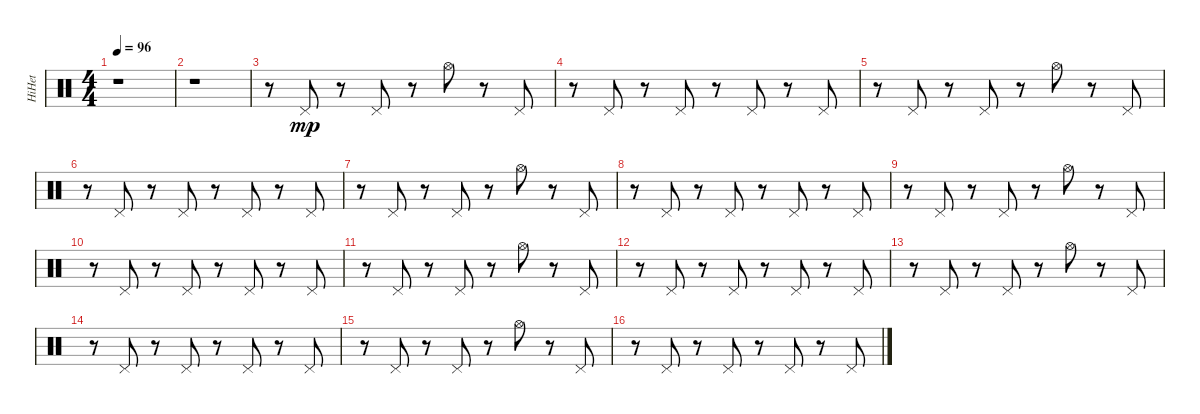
\track ("HiHet" "HiHet") {instrument percussion}
\staff {score}
\articulation defaults
\ts (4 4)
\tempo 96
\clef neutral
\ks c
r.1{dy mp} |
r.1 |
r.8 "Pedal Hi-Hat (hit)".8 r.8 "Pedal Hi-Hat (hit)".8 r.8 "Hi-Hat (open)".8 r.8 "Pedal Hi-Hat (hit)".8 |
r.8 "Pedal Hi-Hat (hit)".8 r.8 "Pedal Hi-Hat (hit)".8 r.8 "Pedal Hi-Hat (hit)".8 r.8 "Pedal Hi-Hat (hit)".8 |
r.8 "Pedal Hi-Hat (hit)".8 r.8 "Pedal Hi-Hat (hit)".8 r.8 "Hi-Hat (open)".8 r.8 "Pedal Hi-Hat (hit)".8 |
r.8 "Pedal Hi-Hat (hit)".8 r.8 "Pedal Hi-Hat (hit)".8 r.8 "Pedal Hi-Hat (hit)".8 r.8 "Pedal Hi-Hat (hit)".8 |
r.8 "Pedal Hi-Hat (hit)".8 r.8 "Pedal Hi-Hat (hit)".8 r.8 "Hi-Hat (open)".8 r.8 "Pedal Hi-Hat (hit)".8 |
r.8 "Pedal Hi-Hat (hit)".8 r.8 "Pedal Hi-Hat (hit)".8 r.8 "Pedal Hi-Hat (hit)".8 r.8 "Pedal Hi-Hat (hit)".8 |
r.8 "Pedal Hi-Hat (hit)".8 r.8 "Pedal Hi-Hat (hit)".8 r.8 "Hi-Hat (open)".8 r.8 "Pedal Hi-Hat (hit)".8 |
r.8 "Pedal Hi-Hat (hit)".8 r.8 "Pedal Hi-Hat (hit)".8 r.8 "Pedal Hi-Hat (hit)".8 r.8 "Pedal Hi-Hat (hit)".8 |
r.8 "Pedal Hi-Hat (hit)".8 r.8 "Pedal Hi-Hat (hit)".8 r.8 "Hi-Hat (open)".8 r.8 "Pedal Hi-Hat (hit)".8 |
r.8 "Pedal Hi-Hat (hit)".8 r.8 "Pedal Hi-Hat (hit)".8 r.8 "Pedal Hi-Hat (hit)".8 r.8 "Pedal Hi-Hat (hit)".8 |
r.8 "Pedal Hi-Hat (hit)".8 r.8 "Pedal Hi-Hat (hit)".8 r.8 "Hi-Hat (open)".8 r.8 "Pedal Hi-Hat (hit)".8 |
r.8 "Pedal Hi-Hat (hit)".8 r.8 "Pedal Hi-Hat (hit)".8 r.8 "Pedal Hi-Hat (hit)".8 r.8 "Pedal Hi-Hat (hit)".8 |
r.8 "Pedal Hi-Hat (hit)".8 r.8 "Pedal Hi-Hat (hit)".8 r.8 "Hi-Hat (open)".8 r.8 "Pedal Hi-Hat (hit)".8 |
r.8 "Pedal Hi-Hat (hit)".8 r.8 "Pedal Hi-Hat (hit)".8 r.8 "Pedal Hi-Hat (hit)".8 r.8 "Pedal Hi-Hat (hit)".8
